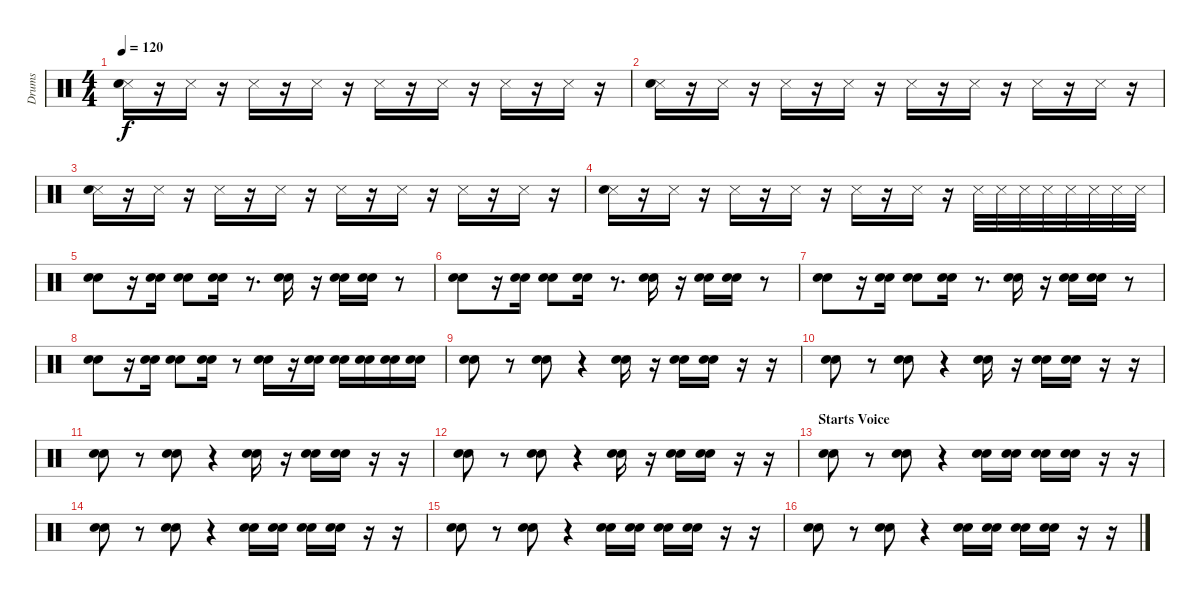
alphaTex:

\track ("Drums" "Drums") {instrument percussion}
\staff {score}
\articulation defaults
\ts (4 4)
\tempo 120
\clef neutral
\ks c
("Metronome (hit)" "Electric Snare (hit)").16{dy f volume 8} r.16 "Metronome (hit)".16 r.16 "Metronome (hit)".16 r.16 "Metronome (hit)".16 r.16 "Metronome (hit)".16 r.16 "Metronome (hit)".16 r.16 "Metronome (hit)".16 r.16 "Metronome (hit)".16 r.16 |
("Metronome (hit)" "Electric Snare (hit)").16 r.16 "Metronome (hit)".16 r.16 "Metronome (hit)".16 r.16 "Metronome (hit)".16 r.16 "Metronome (hit)".16 r.16 "Metronome (hit)".16 r.16 "Metronome (hit)".16 r.16 "Metronome (hit)".16 r.16 |
("Metronome (hit)" "Electric Snare (hit)").16 r.16 "Metronome (hit)".16 r.16 "Metronome (hit)".16 r.16 "Metronome (hit)".16 r.16 "Metronome (hit)".16 r.16 "Metronome (hit)".16 r.16 "Metronome (hit)".16 r.16 "Metronome (hit)".16 r.16 |
("Metronome (hit)" "Electric Snare (hit)").16 r.16 "Metronome (hit)".16 r.16 "Metronome (hit)".16 r.16 "Metronome (hit)".16 r.16 "Metronome (hit)".16 r.16 "Metronome (hit)".16 r.16 "Metronome (hit)".32 "Metronome (hit)".32 "Metronome (hit)".32 "Metronome (hit)".32 "Metronome (hit)".32 "Metronome (hit)".32 "Metronome (hit)".32 "Metronome (hit)".32 |
("Snare (hit) 2" "Electric Snare (hit)").8{volume 13} r.16 ("Snare (hit) 2" "Electric Snare (hit)").16 ("Snare (hit) 2" "Electric Snare (hit)").8 ("Snare (hit) 2" "Electric Snare (hit)").16 r.8{d} ("Snare (hit) 2" "Electric Snare (hit)").16 r.16 ("Snare (hit) 2" "Electric Snare (hit)").16 ("Snare (hit) 2" "Electric Snare (hit)").16 r.8 |
("Snare (hit) 2" "Electric Snare (hit)").8 r.16 ("Snare (hit) 2" "Electric Snare (hit)").16 ("Snare (hit) 2" "Electric Snare (hit)").8 ("Snare (hit) 2" "Electric Snare (hit)").16 r.8{d} ("Snare (hit) 2" "Electric Snare (hit)").16 r.16 ("Snare (hit) 2" "Electric Snare (hit)").16 ("Snare (hit) 2" "Electric Snare (hit)").16 r.8 |
("Snare (hit) 2" "Electric Snare (hit)").8 r.16 ("Snare (hit) 2" "Electric Snare (hit)").16 ("Snare (hit) 2" "Electric Snare (hit)").8 ("Snare (hit) 2" "Electric Snare (hit)").16 r.8{d} ("Snare (hit) 2" "Electric Snare (hit)").16 r.16 ("Snare (hit) 2" "Electric Snare (hit)").16 ("Snare (hit) 2" "Electric Snare (hit)").16 r.8 |
("Snare (hit) 2" "Electric Snare (hit)").8 r.16 ("Snare (hit) 2" "Electric Snare (hit)").16 ("Snare (hit) 2" "Electric Snare (hit)").8 ("Snare (hit) 2" "Electric Snare (hit)").16 r.8 ("Snare (hit) 2" "Electric Snare (hit)").16 r.16 ("Snare (hit) 2" "Electric Snare (hit)").16 ("Snare (hit) 2" "Electric Snare (hit)").16 ("Snare (hit) 2" "Electric Snare (hit)").16 ("Snare (hit) 2" "Electric Snare (hit)").16 ("Snare (hit) 2" "Electric Snare (hit)").16 |
("Snare (hit) 2" "Electric Snare (hit)").8 r.8 ("Snare (hit) 2" "Electric Snare (hit)").8 r.4 ("Snare (hit) 2" "Electric Snare (hit)").16 r.16 ("Snare (hit) 2" "Electric Snare (hit)").16 ("Snare (hit) 2" "Electric Snare (hit)").16 r.16 r.16 |
("Snare (hit) 2" "Electric Snare (hit)").8 r.8 ("Snare (hit) 2" "Electric Snare (hit)").8 r.4 ("Snare (hit) 2" "Electric Snare (hit)").16 r.16 ("Snare (hit) 2" "Electric Snare (hit)").16 ("Snare (hit) 2" "Electric Snare (hit)").16 r.16 r.16 |
("Snare (hit) 2" "Electric Snare (hit)").8 r.8 ("Snare (hit) 2" "Electric Snare (hit)").8 r.4 ("Snare (hit) 2" "Electric Snare (hit)").16 r.16 ("Snare (hit) 2" "Electric Snare (hit)").16 ("Snare (hit) 2" "Electric Snare (hit)").16 r.16 r.16 |
("Snare (hit) 2" "Electric Snare (hit)").8 r.8 ("Snare (hit) 2" "Electric Snare (hit)").8 r.4 ("Snare (hit) 2" "Electric Snare (hit)").16 r.16 ("Snare (hit) 2" "Electric Snare (hit)").16 ("Snare (hit) 2" "Electric Snare (hit)").16 r.16 r.16 |
\section ("" "Starts Voice")
("Snare (hit) 2" "Electric Snare (hit)").8 r.8 ("Snare (hit) 2" "Electric Snare (hit)").8 r.4 ("Snare (hit) 2" "Electric Snare (hit)").16 ("Snare (hit) 2" "Electric Snare (hit)").16 ("Snare (hit) 2" "Electric Snare (hit)").16 ("Snare (hit) 2" "Electric Snare (hit)").16 r.16 r.16 |
("Snare (hit) 2" "Electric Snare (hit)").8 r.8 ("Snare (hit) 2" "Electric Snare (hit)").8 r.4 ("Snare (hit) 2" "Electric Snare (hit)").16 ("Snare (hit) 2" "Electric Snare (hit)").16 ("Snare (hit) 2" "Electric Snare (hit)").16 ("Snare (hit) 2" "Electric Snare (hit)").16 r.16 r.16 |
("Snare (hit) 2" "Electric Snare (hit)").8 r.8 ("Snare (hit) 2" "Electric Snare (hit)").8 r.4 ("Snare (hit) 2" "Electric Snare (hit)").16 ("Snare (hit) 2" "Electric Snare (hit)").16 ("Snare (hit) 2" "Electric Snare (hit)").16 ("Snare (hit) 2" "Electric Snare (hit)").16 r.16 r.16 |
("Snare (hit) 2" "Electric Snare (hit)").8 r.8 ("Snare (hit) 2" "Electric Snare (hit)").8 r.4 ("Snare (hit) 2" "Electric Snare (hit)").16 ("Snare (hit) 2" "Electric Snare (hit)").16 ("Snare (hit) 2" "Electric Snare (hit)").16 ("Snare (hit) 2" "Electric Snare (hit)").16 r.16 r.16
